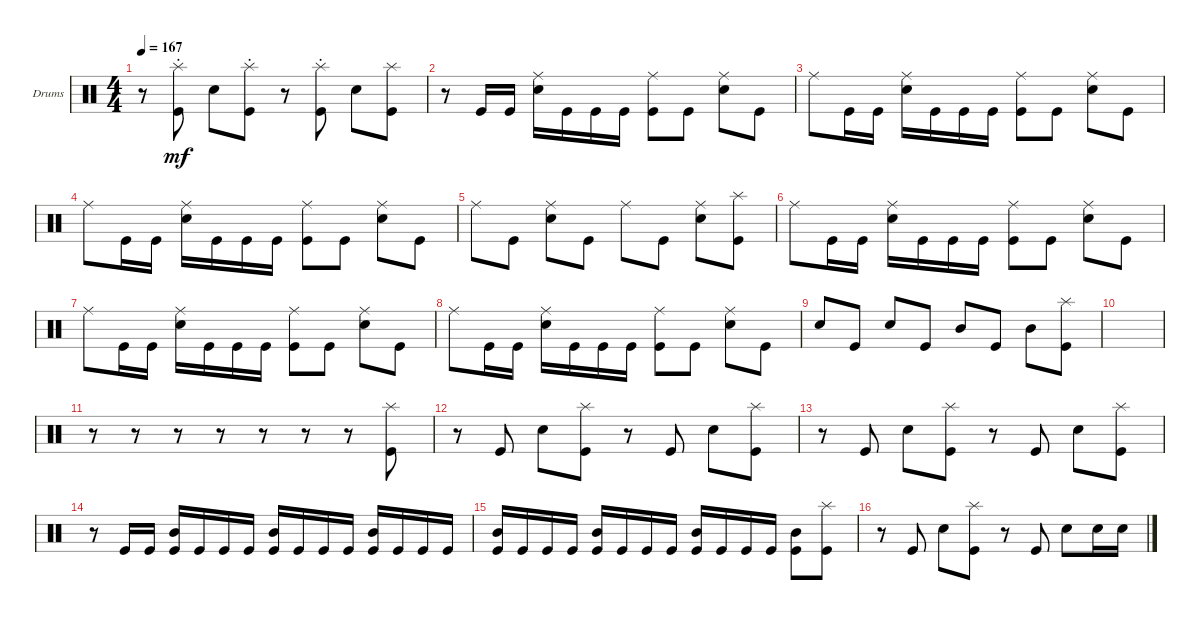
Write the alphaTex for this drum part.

\bracketExtendMode groupsimilarinstruments
\firstSystemTrackNameOrientation horizontal
\otherSystemsTrackNameOrientation horizontal
\track ("Drumkit" "Drums") {instrument percussion}
\staff {score}
\articulation defaults
\ts (4 4)
\tempo 167
\clef neutral
\ks c
r.8{dy mf} ("Splash (hit)"{st} "Kick (hit)").8 "Snare (hit) 2".8 ("Splash (hit)"{st} "Kick (hit)").8 r.8 ("Splash (hit)"{st} "Kick (hit)").8 "Snare (hit) 2".8 ("Kick (hit)" "Splash (hit)").8 |
r.8 "Kick (hit)".16 "Kick (hit)".16 ("Snare (hit) 2" "Ride (middle)").16 "Kick (hit)".16 "Kick (hit)".16 "Kick (hit)".16 ("Kick (hit)" "Ride (middle)").8 "Kick (hit)".8 ("Snare (hit) 2" "Ride (middle)").8 "Kick (hit)".8 |
"Ride (middle)".8 "Kick (hit)".16 "Kick (hit)".16 ("Snare (hit) 2" "Ride (middle)").16 "Kick (hit)".16 "Kick (hit)".16 "Kick (hit)".16 ("Kick (hit)" "Ride (middle)").8 "Kick (hit)".8 ("Snare (hit) 2" "Ride (middle)").8 "Kick (hit)".8 |
"Ride (middle)".8 "Kick (hit)".16 "Kick (hit)".16 ("Snare (hit) 2" "Ride (middle)").16 "Kick (hit)".16 "Kick (hit)".16 "Kick (hit)".16 ("Kick (hit)" "Ride (middle)").8 "Kick (hit)".8 ("Snare (hit) 2" "Ride (middle)").8 "Kick (hit)".8 |
"Ride (middle)".8 "Kick (hit)".8 ("Snare (hit) 2" "Ride (middle)").8 "Kick (hit)".8 "Ride (middle)".8 "Kick (hit)".8 ("Snare (hit) 2" "Ride (middle)").8 ("Kick (hit)" "Splash (hit)").8 |
"Ride (middle)".8 "Kick (hit)".16 "Kick (hit)".16 ("Snare (hit) 2" "Ride (middle)").16 "Kick (hit)".16 "Kick (hit)".16 "Kick (hit)".16 ("Kick (hit)" "Ride (middle)").8 "Kick (hit)".8 ("Snare (hit) 2" "Ride (middle)").8 "Kick (hit)".8 |
"Ride (middle)".8 "Kick (hit)".16 "Kick (hit)".16 ("Snare (hit) 2" "Ride (middle)").16 "Kick (hit)".16 "Kick (hit)".16 "Kick (hit)".16 ("Kick (hit)" "Ride (middle)").8 "Kick (hit)".8 ("Snare (hit) 2" "Ride (middle)").8 "Kick (hit)".8 |
"Ride (middle)".8 "Kick (hit)".16 "Kick (hit)".16 ("Snare (hit) 2" "Ride (middle)").16 "Kick (hit)".16 "Kick (hit)".16 "Kick (hit)".16 ("Kick (hit)" "Ride (middle)").8 "Kick (hit)".8 ("Snare (hit) 2" "Ride (middle)").8 "Kick (hit)".8 |
"Snare (hit) 2".8 "Kick (hit)".8 "Snare (hit) 2".8 "Kick (hit)".8 "Mid Tom (hit)".8 "Kick (hit)".8 "Mid Tom (hit)".8 ("Kick (hit)" "Splash (hit)").8 |
|
r.8 r.8 r.8 r.8 r.8 r.8 r.8 ("Kick (hit)" "Splash (hit)").8 |
r.8 "Kick (hit)".8 "Snare (hit) 2".8 ("Kick (hit)" "Splash (hit)").8 r.8 "Kick (hit)".8 "Snare (hit) 2".8 ("Kick (hit)" "Splash (hit)").8 |
r.8 "Kick (hit)".8 "Snare (hit) 2".8 ("Kick (hit)" "Splash (hit)").8 r.8 "Kick (hit)".8 "Snare (hit) 2".8 ("Kick (hit)" "Splash (hit)").8 |
r.8 "Kick (hit)".16 "Kick (hit)".16 ("Kick (hit)" "Mid Tom (hit)").16 "Kick (hit)".16 "Kick (hit)".16 "Kick (hit)".16 ("Kick (hit)" "Mid Tom (hit)").16 "Kick (hit)".16 "Kick (hit)".16 "Kick (hit)".16 ("Kick (hit)" "Mid Tom (hit)").16 "Kick (hit)".16 "Kick (hit)".16 "Kick (hit)".16 |
("Kick (hit)" "Mid Tom (hit)").16 "Kick (hit)".16 "Kick (hit)".16 "Kick (hit)".16 ("Kick (hit)" "Mid Tom (hit)").16 "Kick (hit)".16 "Kick (hit)".16 "Kick (hit)".16 ("Kick (hit)" "Mid Tom (hit)").16 "Kick (hit)".16 "Kick (hit)".16 "Kick (hit)".16 ("Kick (hit)" "Mid Tom (hit)").8 ("Kick (hit)" "Splash (hit)").8 |
r.8 "Kick (hit)".8 "Snare (hit) 2".8 ("Kick (hit)" "Splash (hit)").8 r.8 "Kick (hit)".8 "Snare (hit) 2".8 "Snare (hit) 2".16 "Snare (hit) 2".16
